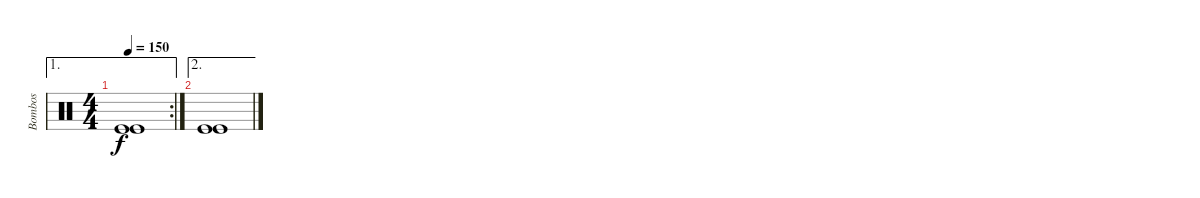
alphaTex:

\track ("Bombos" "Bombos") {instrument percussion}
\staff {score}
\articulation defaults
\ae 1
\rc 2
\ts (4 4)
\tempo 150
\clef neutral
\ks c
("Kick (hit)" "Kick (hit)").1{dy f} |
\ae 2
("Kick (hit)" "Kick (hit)").1
